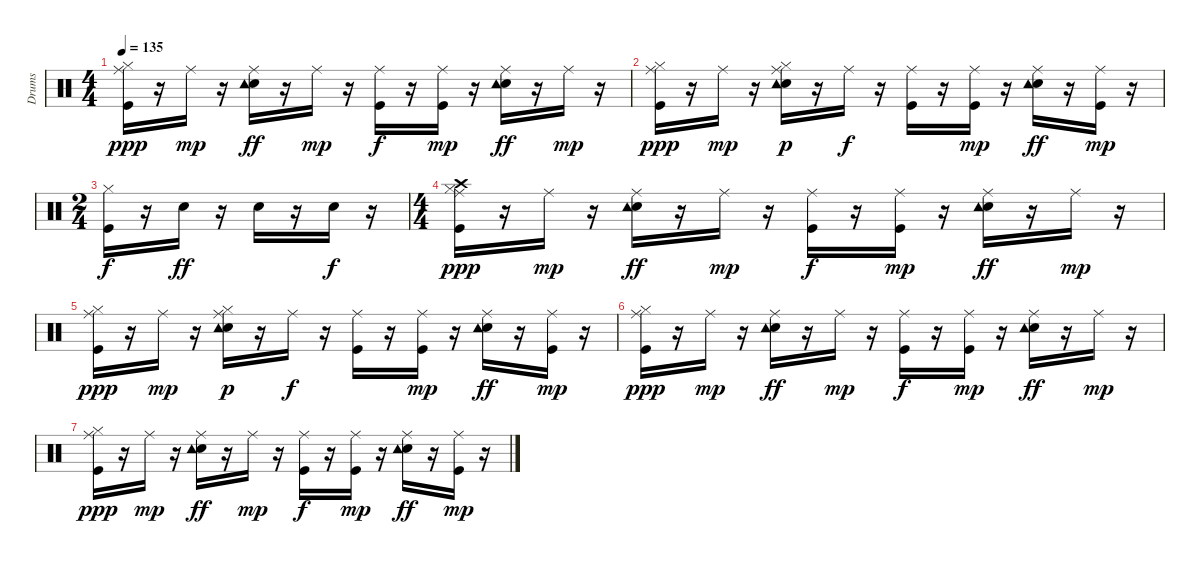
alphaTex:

\track ("Drums   " "Drums   ") {instrument percussion}
\staff {score}
\articulation defaults
\ts (4 4)
\tempo 135
\clef neutral
\ks c
("Kick (hit)" "Hi-Hat (closed)" "Ride (middle)").16{dy ppp volume 8} r.16 "Ride (middle)".16{dy mp volume 8} r.16 ("Snare (hit) 2" "Ride (middle)" "Tambourine (hit)").16{dy ff volume 8} r.16 "Ride (middle)".16{dy mp volume 8} r.16 ("Kick (hit)" "Ride (middle)").16{dy f volume 7} r.16 ("Kick (hit)" "Ride (middle)").16{dy mp volume 7} r.16 ("Snare (hit) 2" "Ride (middle)" "Tambourine (hit)").16{dy ff volume 7} r.16 "Ride (middle)".16{dy mp volume 7} r.16 |
("Kick (hit)" "Hi-Hat (closed)" "Ride (middle)").16{dy ppp volume 7} r.16 "Ride (middle)".16{dy mp volume 7} r.16 ("Snare (hit) 2" "Hi-Hat (closed)" "Ride (middle)" "Tambourine (hit)").16{dy p volume 6} r.16 "Ride (middle)".16{dy f volume 6} r.16 ("Kick (hit)" "Ride (middle)").16{volume 6} r.16 ("Kick (hit)" "Ride (middle)").16{dy mp volume 6} r.16 ("Snare (hit) 2" "Ride (middle)" "Tambourine (hit)").16{dy ff volume 6} r.16 ("Kick (hit)" "Ride (middle)").16{dy mp volume 6} r.16 |
\ts (2 4)
("Kick (hit)" "Hi-Hat (closed)").16{dy f volume 6} r.16 "Snare (hit) 2".16{dy ff volume 5} r.16 "Snare (hit) 2".16{volume 5} r.16 "Snare (hit) 2".16{dy f volume 5} r.16 |
\ts (4 4)
("Kick (hit)" "Hi-Hat (closed)" "Ride (middle)" "Crash high (hit)").16{dy ppp volume 5} r.16 "Ride (middle)".16{dy mp volume 5} r.16 ("Snare (hit) 2" "Ride (middle)" "Tambourine (hit)").16{dy ff volume 5} r.16 "Ride (middle)".16{dy mp volume 4} r.16 ("Kick (hit)" "Ride (middle)").16{dy f volume 4} r.16 ("Kick (hit)" "Ride (middle)").16{dy mp volume 4} r.16 ("Snare (hit) 2" "Ride (middle)" "Tambourine (hit)").16{dy ff volume 4} r.16 "Ride (middle)".16{dy mp volume 4} r.16 |
("Kick (hit)" "Hi-Hat (closed)" "Ride (middle)").16{dy ppp volume 4} r.16 "Ride (middle)".16{dy mp volume 4} r.16 ("Snare (hit) 2" "Hi-Hat (closed)" "Ride (middle)" "Tambourine (hit)").16{dy p volume 3} r.16 "Ride (middle)".16{dy f volume 3} r.16 ("Kick (hit)" "Ride (middle)").16{volume 3} r.16 ("Kick (hit)" "Ride (middle)").16{dy mp volume 3} r.16 ("Snare (hit) 2" "Ride (middle)" "Tambourine (hit)").16{dy ff volume 3} r.16 ("Kick (hit)" "Ride (middle)").16{dy mp volume 3} r.16 |
("Kick (hit)" "Hi-Hat (closed)" "Ride (middle)").16{dy ppp volume 2} r.16 "Ride (middle)".16{dy mp volume 2} r.16 ("Snare (hit) 2" "Ride (middle)" "Tambourine (hit)").16{dy ff volume 2} r.16 "Ride (middle)".16{dy mp volume 2} r.16 ("Kick (hit)" "Ride (middle)").16{dy f volume 2} r.16 ("Kick (hit)" "Ride (middle)").16{dy mp volume 2} r.16 ("Snare (hit) 2" "Ride (middle)" "Tambourine (hit)").16{dy ff volume 2} r.16 "Ride (middle)".16{dy mp volume 1} r.16 |
("Kick (hit)" "Hi-Hat (closed)" "Ride (middle)").16{dy ppp volume 1} r.16 "Ride (middle)".16{dy mp volume 1} r.16 ("Snare (hit) 2" "Ride (middle)" "Tambourine (hit)").16{dy ff volume 1} r.16 "Ride (middle)".16{dy mp volume 1} r.16 ("Kick (hit)" "Ride (middle)").16{dy f volume 0} r.16 ("Kick (hit)" "Ride (middle)").16{dy mp volume 0} r.16 ("Snare (hit) 2" "Ride (middle)" "Tambourine (hit)").16{dy ff volume 0} r.16 ("Kick (hit)" "Ride (middle)").16{dy mp volume 0} r.16
